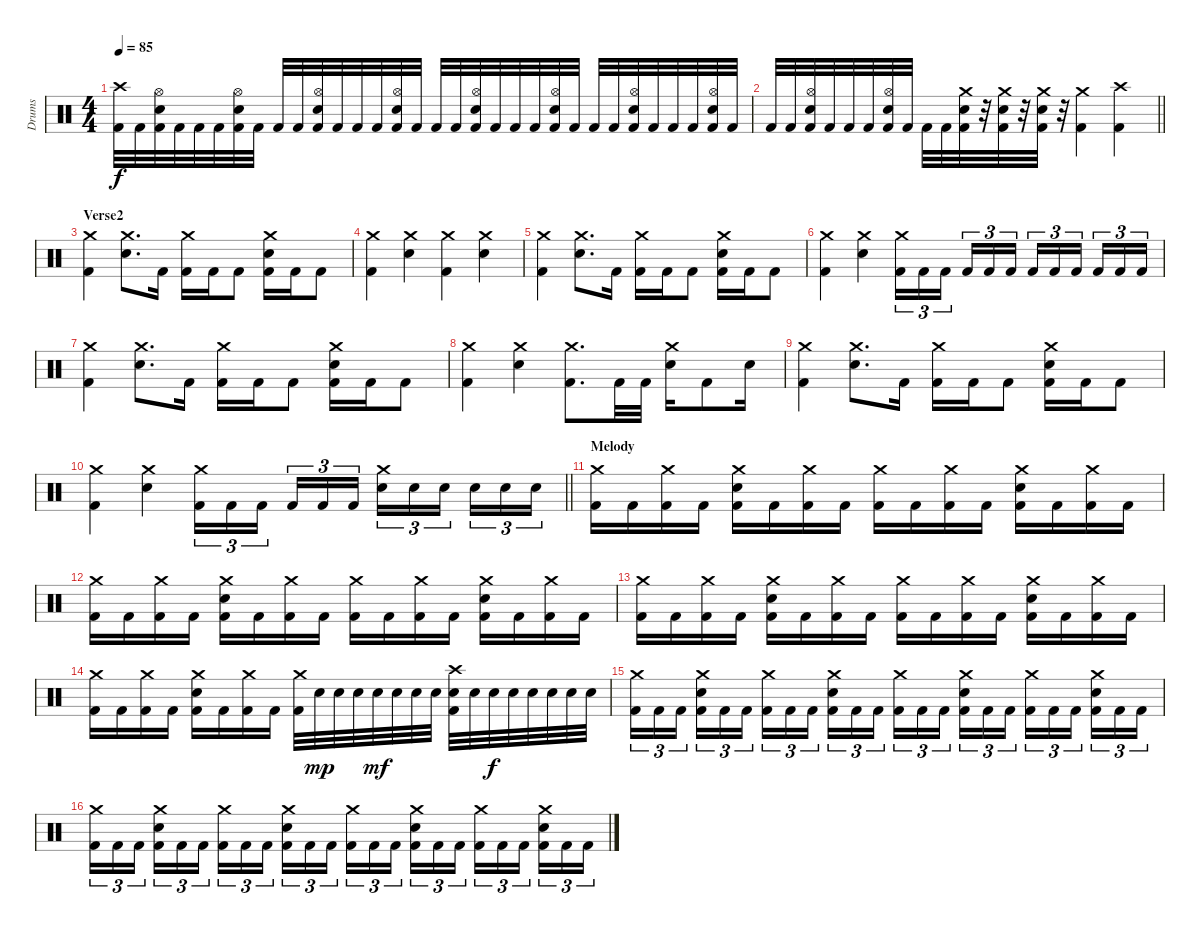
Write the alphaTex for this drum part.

\track ("Drums" "Drums") {instrument percussion}
\staff {score}
\articulation defaults
\ts (4 4)
\tempo 85
\clef neutral
\ks c
("Crash high (hit)" "Kick (hit) 2").32{dy f} "Kick (hit) 2".32 ("Hi-Hat (open)" "Electric Snare (hit)" "Kick (hit) 2").32 "Kick (hit) 2".32 "Kick (hit) 2".32 "Kick (hit) 2".32 ("Hi-Hat (open)" "Electric Snare (hit)" "Kick (hit) 2").32 "Kick (hit) 2".32 "Kick (hit) 2".32 "Kick (hit) 2".32 ("Hi-Hat (open)" "Electric Snare (hit)" "Kick (hit) 2").32 "Kick (hit) 2".32 "Kick (hit) 2".32 "Kick (hit) 2".32 ("Hi-Hat (open)" "Electric Snare (hit)" "Kick (hit) 2").32 "Kick (hit) 2".32 "Kick (hit) 2".32 "Kick (hit) 2".32 ("Hi-Hat (open)" "Electric Snare (hit)" "Kick (hit) 2").32 "Kick (hit) 2".32 "Kick (hit) 2".32 "Kick (hit) 2".32 ("Hi-Hat (open)" "Electric Snare (hit)" "Kick (hit) 2").32 "Kick (hit) 2".32 "Kick (hit) 2".32 "Kick (hit) 2".32 ("Hi-Hat (open)" "Electric Snare (hit)" "Kick (hit) 2").32 "Kick (hit) 2".32 "Kick (hit) 2".32 "Kick (hit) 2".32 ("Hi-Hat (open)" "Electric Snare (hit)" "Kick (hit) 2").32 "Kick (hit) 2".32 |
\barLineRight lightlight "Kick (hit) 2".32 "Kick (hit) 2".32
("Hi-Hat (open)" "Electric Snare (hit)" "Kick (hit) 2").32 "Kick (hit) 2".32 "Kick (hit) 2".32 "Kick (hit) 2".32 ("Hi-Hat (open)" "Electric Snare (hit)" "Kick (hit) 2").32 "Kick (hit) 2".32 "Kick (hit) 2".32 "Kick (hit) 2".32 ("Crash medium (hit)" "Electric Snare (hit)" "Kick (hit) 2").32 r.32 ("Crash medium (hit)" "Electric Snare (hit)" "Kick (hit) 2").32 r.32 ("Crash medium (hit)" "Electric Snare (hit)" "Kick (hit) 2").32 r.32 ("Crash medium (hit)" "Kick (hit) 2").4 ("Crash high (hit)" "Kick (hit) 2").4 |
\section ("" "Verse2")
("Crash medium (hit)" "Kick (hit) 2").4 ("Crash medium (hit)" "Electric Snare (hit)").8{d} "Kick (hit) 2".16 ("Crash medium (hit)" "Kick (hit) 2").16 "Kick (hit) 2".16 "Kick (hit) 2".8 ("Crash medium (hit)" "Electric Snare (hit)" "Kick (hit) 2").16 "Kick (hit) 2".16 "Kick (hit) 2".8 |
("Crash medium (hit)" "Kick (hit) 2").4 ("Crash medium (hit)" "Electric Snare (hit)").4 ("Crash medium (hit)" "Kick (hit) 2").4 ("Crash medium (hit)" "Electric Snare (hit)").4 |
("Crash medium (hit)" "Kick (hit) 2").4 ("Crash medium (hit)" "Electric Snare (hit)").8{d} "Kick (hit) 2".16 ("Crash medium (hit)" "Kick (hit) 2").16 "Kick (hit) 2".16 "Kick (hit) 2".8 ("Crash medium (hit)" "Electric Snare (hit)" "Kick (hit) 2").16 "Kick (hit) 2".16 "Kick (hit) 2".8 |
("Crash medium (hit)" "Kick (hit) 2").4 ("Crash medium (hit)" "Electric Snare (hit)").4 ("Crash medium (hit)" "Kick (hit) 2").16{tu (3 2)} "Kick (hit) 2".16{tu (3 2)} "Kick (hit) 2".16{tu (3 2)} "Kick (hit) 2".16{tu (3 2)} "Kick (hit) 2".16{tu (3 2)} "Kick (hit) 2".16{tu (3 2)} "Kick (hit) 2".16{tu (3 2)} "Kick (hit) 2".16{tu (3 2)} "Kick (hit) 2".16{tu (3 2)} "Kick (hit) 2".16{tu (3 2)} "Kick (hit) 2".16{tu (3 2)} "Kick (hit) 2".16{tu (3 2)} |
("Crash medium (hit)" "Kick (hit) 2").4 ("Crash medium (hit)" "Electric Snare (hit)").8{d} "Kick (hit) 2".16 ("Crash medium (hit)" "Kick (hit) 2").16 "Kick (hit) 2".16 "Kick (hit) 2".8 ("Crash medium (hit)" "Electric Snare (hit)" "Kick (hit) 2").16 "Kick (hit) 2".16 "Kick (hit) 2".8 |
("Crash medium (hit)" "Kick (hit) 2").4 ("Crash medium (hit)" "Electric Snare (hit)").4 ("Crash medium (hit)" "Kick (hit) 2").8{d} "Kick (hit) 2".32 "Kick (hit) 2".32 ("Crash medium (hit)" "Electric Snare (hit)").16 "Kick (hit) 2".8 "Electric Snare (hit)".16 |
("Crash medium (hit)" "Kick (hit) 2").4 ("Crash medium (hit)" "Electric Snare (hit)").8{d} "Kick (hit) 2".16 ("Crash medium (hit)" "Kick (hit) 2").16 "Kick (hit) 2".16 "Kick (hit) 2".8 ("Crash medium (hit)" "Electric Snare (hit)" "Kick (hit) 2").16 "Kick (hit) 2".16 "Kick (hit) 2".8 |
\barLineRight lightlight
("Crash medium (hit)" "Kick (hit) 2").4 ("Crash medium (hit)" "Electric Snare (hit)").4 ("Crash medium (hit)" "Kick (hit) 2").16{tu (3 2)} "Kick (hit) 2".16{tu (3 2)} "Kick (hit) 2".16{tu (3 2)} "Kick (hit) 2".16{tu (3 2)} "Kick (hit) 2".16{tu (3 2)} "Kick (hit) 2".16{tu (3 2)} ("Crash medium (hit)" "Electric Snare (hit)").16{tu (3 2)} "Electric Snare (hit)".16{tu (3 2)} "Electric Snare (hit)".16{tu (3 2)} "Electric Snare (hit)".16{tu (3 2)} "Electric Snare (hit)".16{tu (3 2)} "Electric Snare (hit)".16{tu (3 2)} |
\section ("" "Melody")
("Crash medium (hit)" "Kick (hit) 2").16 "Kick (hit) 2".16 ("Crash medium (hit)" "Kick (hit) 2").16 "Kick (hit) 2".16 ("Crash medium (hit)" "Electric Snare (hit)" "Kick (hit) 2").16 "Kick (hit) 2".16 ("Crash medium (hit)" "Kick (hit) 2").16 "Kick (hit) 2".16 ("Crash medium (hit)" "Kick (hit) 2").16 "Kick (hit) 2".16 ("Crash medium (hit)" "Kick (hit) 2").16 "Kick (hit) 2".16 ("Crash medium (hit)" "Electric Snare (hit)" "Kick (hit) 2").16 "Kick (hit) 2".16 ("Crash medium (hit)" "Kick (hit) 2").16 "Kick (hit) 2".16 |
("Crash medium (hit)" "Kick (hit) 2").16 "Kick (hit) 2".16 ("Crash medium (hit)" "Kick (hit) 2").16 "Kick (hit) 2".16 ("Crash medium (hit)" "Electric Snare (hit)" "Kick (hit) 2").16 "Kick (hit) 2".16 ("Crash medium (hit)" "Kick (hit) 2").16 "Kick (hit) 2".16 ("Crash medium (hit)" "Kick (hit) 2").16 "Kick (hit) 2".16 ("Crash medium (hit)" "Kick (hit) 2").16 "Kick (hit) 2".16 ("Crash medium (hit)" "Electric Snare (hit)" "Kick (hit) 2").16 "Kick (hit) 2".16 ("Crash medium (hit)" "Kick (hit) 2").16 "Kick (hit) 2".16 |
("Crash medium (hit)" "Kick (hit) 2").16 "Kick (hit) 2".16 ("Crash medium (hit)" "Kick (hit) 2").16 "Kick (hit) 2".16 ("Crash medium (hit)" "Electric Snare (hit)" "Kick (hit) 2").16 "Kick (hit) 2".16 ("Crash medium (hit)" "Kick (hit) 2").16 "Kick (hit) 2".16 ("Crash medium (hit)" "Kick (hit) 2").16 "Kick (hit) 2".16 ("Crash medium (hit)" "Kick (hit) 2").16 "Kick (hit) 2".16 ("Crash medium (hit)" "Electric Snare (hit)" "Kick (hit) 2").16 "Kick (hit) 2".16 ("Crash medium (hit)" "Kick (hit) 2").16 "Kick (hit) 2".16 |
("Crash medium (hit)" "Kick (hit) 2").16 "Kick (hit) 2".16 ("Crash medium (hit)" "Kick (hit) 2").16 "Kick (hit) 2".16 ("Crash medium (hit)" "Electric Snare (hit)" "Kick (hit) 2").16 "Kick (hit) 2".16 ("Crash medium (hit)" "Kick (hit) 2").16 "Kick (hit) 2".16 ("Crash medium (hit)" "Kick (hit) 2").32 "Electric Snare (hit)".32{dy mp} "Electric Snare (hit)".32 "Electric Snare (hit)".32 "Electric Snare (hit)".32{dy mf} "Electric Snare (hit)".32 "Electric Snare (hit)".32 "Electric Snare (hit)".32 ("Crash high (hit)" "Electric Snare (hit)" "Kick (hit) 2").32 "Electric Snare (hit)".32 "Electric Snare (hit)".32{dy f} "Electric Snare (hit)".32 "Electric Snare (hit)".32 "Electric Snare (hit)".32 "Electric Snare (hit)".32 "Electric Snare (hit)".32 |
("Crash medium (hit)" "Kick (hit) 2").16{tu (3 2)} "Kick (hit) 2".16{tu (3 2)} "Kick (hit) 2".16{tu (3 2)} ("Crash medium (hit)" "Electric Snare (hit)" "Kick (hit) 2").16{tu (3 2)} "Kick (hit) 2".16{tu (3 2)} "Kick (hit) 2".16{tu (3 2)} ("Crash medium (hit)" "Kick (hit) 2").16{tu (3 2)} "Kick (hit) 2".16{tu (3 2)} "Kick (hit) 2".16{tu (3 2)} ("Crash medium (hit)" "Electric Snare (hit)" "Kick (hit) 2").16{tu (3 2)} "Kick (hit) 2".16{tu (3 2)} "Kick (hit) 2".16{tu (3 2)} ("Crash medium (hit)" "Kick (hit) 2").16{tu (3 2)} "Kick (hit) 2".16{tu (3 2)} "Kick (hit) 2".16{tu (3 2)} ("Crash medium (hit)" "Electric Snare (hit)" "Kick (hit) 2").16{tu (3 2)} "Kick (hit) 2".16{tu (3 2)} "Kick (hit) 2".16{tu (3 2)} ("Crash medium (hit)" "Kick (hit) 2").16{tu (3 2)} "Kick (hit) 2".16{tu (3 2)} "Kick (hit) 2".16{tu (3 2)} ("Crash medium (hit)" "Electric Snare (hit)" "Kick (hit) 2").16{tu (3 2)} "Kick (hit) 2".16{tu (3 2)} "Kick (hit) 2".16{tu (3 2)} |
("Crash medium (hit)" "Kick (hit) 2").16{tu (3 2)} "Kick (hit) 2".16{tu (3 2)} "Kick (hit) 2".16{tu (3 2)} ("Crash medium (hit)" "Electric Snare (hit)" "Kick (hit) 2").16{tu (3 2)} "Kick (hit) 2".16{tu (3 2)} "Kick (hit) 2".16{tu (3 2)} ("Crash medium (hit)" "Kick (hit) 2").16{tu (3 2)} "Kick (hit) 2".16{tu (3 2)} "Kick (hit) 2".16{tu (3 2)} ("Crash medium (hit)" "Electric Snare (hit)" "Kick (hit) 2").16{tu (3 2)} "Kick (hit) 2".16{tu (3 2)} "Kick (hit) 2".16{tu (3 2)} ("Crash medium (hit)" "Kick (hit) 2").16{tu (3 2)} "Kick (hit) 2".16{tu (3 2)} "Kick (hit) 2".16{tu (3 2)} ("Crash medium (hit)" "Electric Snare (hit)" "Kick (hit) 2").16{tu (3 2)} "Kick (hit) 2".16{tu (3 2)} "Kick (hit) 2".16{tu (3 2)} ("Crash medium (hit)" "Kick (hit) 2").16{tu (3 2)} "Kick (hit) 2".16{tu (3 2)} "Kick (hit) 2".16{tu (3 2)} ("Crash medium (hit)" "Electric Snare (hit)" "Kick (hit) 2").16{tu (3 2)} "Kick (hit) 2".16{tu (3 2)} "Kick (hit) 2".16{tu (3 2)}
